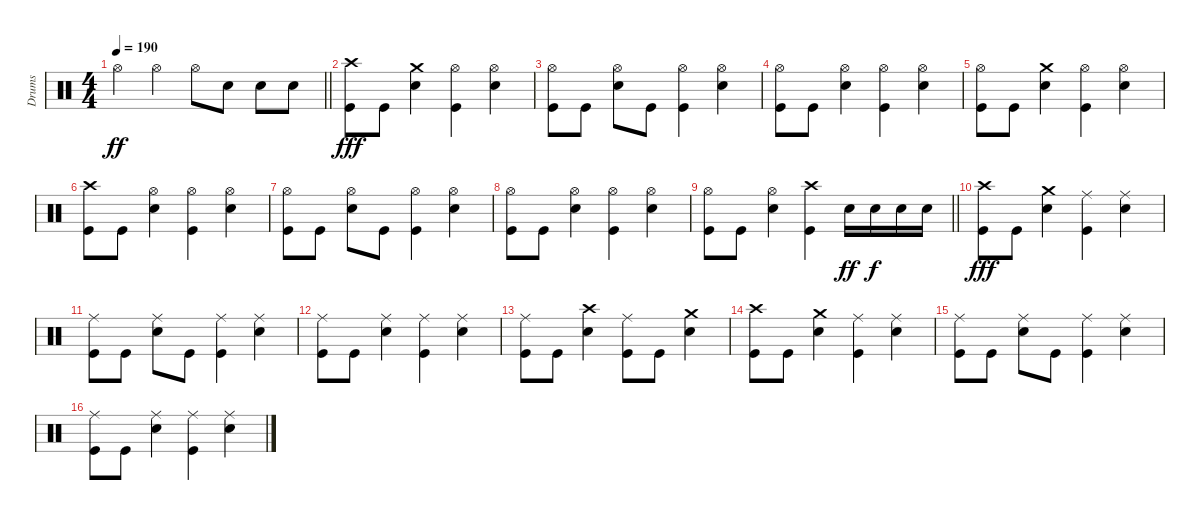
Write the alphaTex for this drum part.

\track ("Drums" "Drums") {instrument percussion}
\staff {score}
\articulation defaults
\ts (4 4)
\tempo 190
\clef neutral
\barLineRight lightlight
\ks c "Hi-Hat (open)".4{dy ff} "Hi-Hat (open)".4 "Hi-Hat (open)".8 "Snare (hit) 2".8 "Snare (hit) 2".8 "Snare (hit) 2".8
|
("Crash high (hit)" "Kick (hit)").8{dy fff} "Kick (hit)".8 ("Crash medium (hit)" "Snare (hit) 2").4 ("Hi-Hat (open)" "Kick (hit)").4 ("Hi-Hat (open)" "Snare (hit) 2").4 |
("Hi-Hat (open)" "Kick (hit)").8 "Kick (hit)".8 ("Hi-Hat (open)" "Snare (hit) 2").8 "Kick (hit)".8 ("Hi-Hat (open)" "Kick (hit)").4 ("Hi-Hat (open)" "Snare (hit) 2").4 |
("Hi-Hat (open)" "Kick (hit)").8 "Kick (hit)".8 ("Hi-Hat (open)" "Snare (hit) 2").4 ("Hi-Hat (open)" "Kick (hit)").4 ("Hi-Hat (open)" "Snare (hit) 2").4 |
("Hi-Hat (open)" "Kick (hit)").8 "Kick (hit)".8 ("Crash medium (hit)" "Snare (hit) 2").4 ("Hi-Hat (open)" "Kick (hit)").4 ("Hi-Hat (open)" "Snare (hit) 2").4 |
("Crash high (hit)" "Kick (hit)").8 "Kick (hit)".8 ("Hi-Hat (open)" "Snare (hit) 2").4 ("Hi-Hat (open)" "Kick (hit)").4 ("Hi-Hat (open)" "Snare (hit) 2").4 |
("Hi-Hat (open)" "Kick (hit)").8 "Kick (hit)".8 ("Hi-Hat (open)" "Snare (hit) 2").8 "Kick (hit)".8 ("Hi-Hat (open)" "Kick (hit)").4 ("Hi-Hat (open)" "Snare (hit) 2").4 |
("Hi-Hat (open)" "Kick (hit)").8 "Kick (hit)".8 ("Hi-Hat (open)" "Snare (hit) 2").4 ("Hi-Hat (open)" "Kick (hit)").4 ("Hi-Hat (open)" "Snare (hit) 2").4 |
\barLineRight lightlight
("Hi-Hat (open)" "Kick (hit)").8 "Kick (hit)".8 ("Hi-Hat (open)" "Snare (hit) 2").4 ("Crash high (hit)" "Kick (hit)").4 "Snare (hit) 2".16{dy ff} "Snare (hit) 2".16{dy f} "Snare (hit) 2".16 "Snare (hit) 2".16 |
("Crash high (hit)" "Kick (hit)").8{dy fff} "Kick (hit)".8 ("Crash medium (hit)" "Snare (hit) 2").4 ("Ride (middle)" "Kick (hit)").4 ("Ride (middle)" "Snare (hit) 2").4 |
("Ride (middle)" "Kick (hit)").8 "Kick (hit)".8 ("Ride (middle)" "Snare (hit) 2").8 "Kick (hit)".8 ("Ride (middle)" "Kick (hit)").4 ("Ride (middle)" "Snare (hit) 2").4 |
("Ride (middle)" "Kick (hit)").8 "Kick (hit)".8 ("Ride (middle)" "Snare (hit) 2").4 ("Ride (middle)" "Kick (hit)").4 ("Ride (middle)" "Snare (hit) 2").4 |
("Ride (middle)" "Kick (hit)").8 "Kick (hit)".8 ("Crash high (hit)" "Snare (hit) 2").4 ("Ride (middle)" "Kick (hit)").8 "Kick (hit)".8 ("Crash medium (hit)" "Snare (hit) 2").4 |
("Crash high (hit)" "Kick (hit)").8 "Kick (hit)".8 ("Crash medium (hit)" "Snare (hit) 2").4 ("Ride (middle)" "Kick (hit)").4 ("Ride (middle)" "Snare (hit) 2").4 |
("Ride (middle)" "Kick (hit)").8 "Kick (hit)".8 ("Ride (middle)" "Snare (hit) 2").8 "Kick (hit)".8 ("Ride (middle)" "Kick (hit)").4 ("Ride (middle)" "Snare (hit) 2").4 |
("Ride (middle)" "Kick (hit)").8 "Kick (hit)".8 ("Ride (middle)" "Snare (hit) 2").4 ("Ride (middle)" "Kick (hit)").4 ("Ride (middle)" "Snare (hit) 2").4
